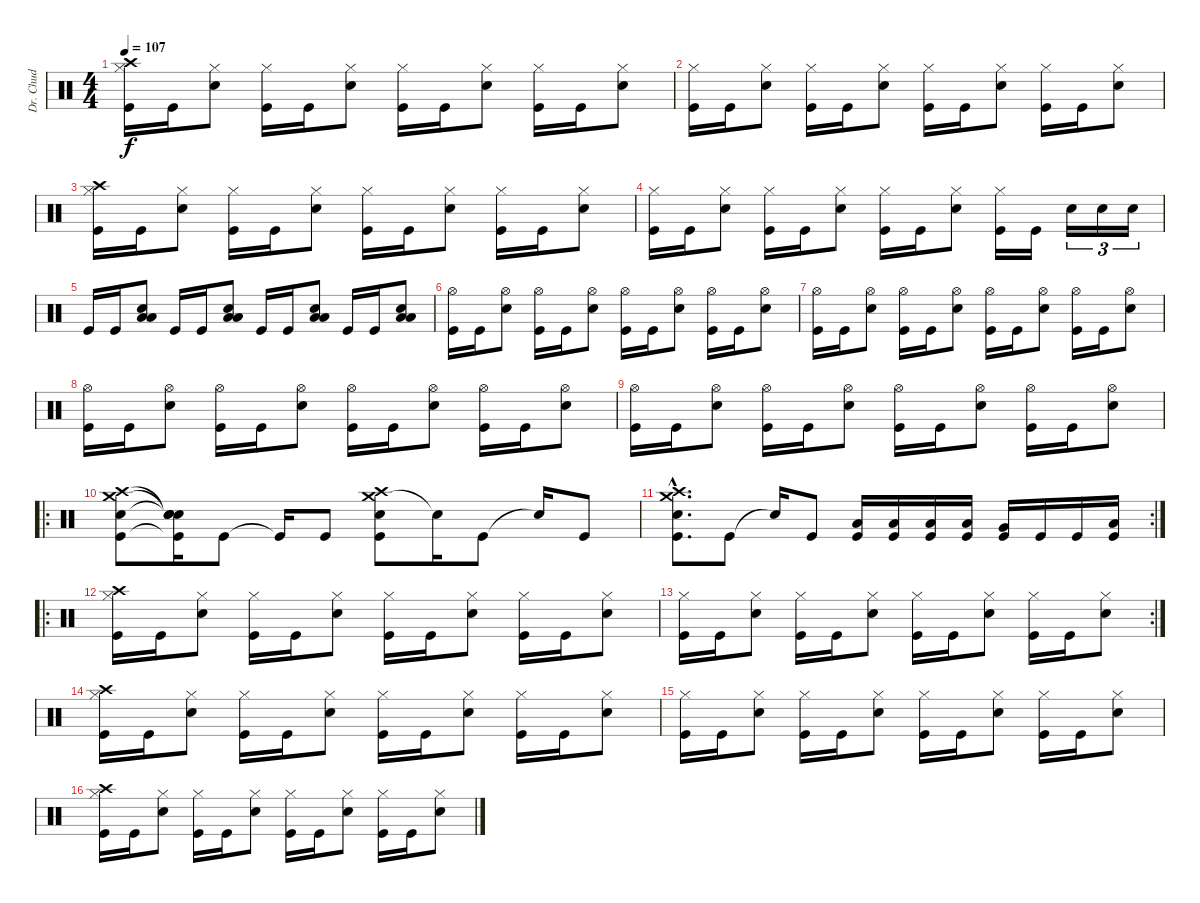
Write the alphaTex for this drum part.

\track ("Dr. Chud" "Dr. Chud") {instrument percussion}
\staff {score}
\articulation defaults
\ts (4 4)
\tempo 107
\clef neutral
\ks c
("Crash high (hit)" "Hi-Hat (closed)" "Kick (hit)").16{dy f} "Kick (hit)".16 ("Hi-Hat (closed)" "Snare (hit) 2").8 ("Hi-Hat (closed)" "Kick (hit)").16 "Kick (hit)".16 ("Hi-Hat (closed)" "Snare (hit) 2").8 ("Hi-Hat (closed)" "Kick (hit)").16 "Kick (hit)".16 ("Hi-Hat (closed)" "Snare (hit) 2").8 ("Hi-Hat (closed)" "Kick (hit)").16 "Kick (hit)".16 ("Hi-Hat (closed)" "Snare (hit) 2").8 |
("Hi-Hat (closed)" "Kick (hit)").16 "Kick (hit)".16 ("Hi-Hat (closed)" "Snare (hit) 2").8 ("Hi-Hat (closed)" "Kick (hit)").16 "Kick (hit)".16 ("Hi-Hat (closed)" "Snare (hit) 2").8 ("Hi-Hat (closed)" "Kick (hit)").16 "Kick (hit)".16 ("Hi-Hat (closed)" "Snare (hit) 2").8 ("Hi-Hat (closed)" "Kick (hit)").16 "Kick (hit)".16 ("Hi-Hat (closed)" "Snare (hit) 2").8 |
("Crash high (hit)" "Hi-Hat (closed)" "Kick (hit)").16 "Kick (hit)".16 ("Hi-Hat (closed)" "Snare (hit) 2").8 ("Hi-Hat (closed)" "Kick (hit)").16 "Kick (hit)".16 ("Hi-Hat (closed)" "Snare (hit) 2").8 ("Hi-Hat (closed)" "Kick (hit)").16 "Kick (hit)".16 ("Hi-Hat (closed)" "Snare (hit) 2").8 ("Hi-Hat (closed)" "Kick (hit)").16 "Kick (hit)".16 ("Hi-Hat (closed)" "Snare (hit) 2").8 |
("Hi-Hat (closed)" "Kick (hit)").16 "Kick (hit)".16 ("Hi-Hat (closed)" "Snare (hit) 2").8 ("Hi-Hat (closed)" "Kick (hit)").16 "Kick (hit)".16 ("Hi-Hat (closed)" "Snare (hit) 2").8 ("Hi-Hat (closed)" "Kick (hit)").16 "Kick (hit)".16 ("Hi-Hat (closed)" "Snare (hit) 2").8 ("Hi-Hat (closed)" "Kick (hit)").16 "Kick (hit)".16 "Snare (hit) 2".16{tu (3 2)} "Snare (hit) 2".16{tu (3 2)} "Snare (hit) 2".16{tu (3 2)} |
"Kick (hit)".16 "Kick (hit)".16 ("Low Floor Tom (hit)" "Low Tom (hit)" "Snare (hit) 2").8 "Kick (hit)".16 "Kick (hit)".16 ("Low Floor Tom (hit)" "Low Tom (hit)" "Snare (hit) 2").8 "Kick (hit)".16 "Kick (hit)".16 ("Low Floor Tom (hit)" "Low Tom (hit)" "Snare (hit) 2").8 "Kick (hit)".16 "Kick (hit)".16 ("Low Floor Tom (hit)" "Low Tom (hit)" "Snare (hit) 2").8 |
("Hi-Hat (open)" "Kick (hit)").16 "Kick (hit)".16 ("Hi-Hat (open)" "Snare (hit) 2").8 ("Hi-Hat (open)" "Kick (hit)").16 "Kick (hit)".16 ("Hi-Hat (open)" "Snare (hit) 2").8 ("Hi-Hat (open)" "Kick (hit)").16 "Kick (hit)".16 ("Hi-Hat (open)" "Snare (hit) 2").8 ("Hi-Hat (open)" "Kick (hit)").16 "Kick (hit)".16 ("Hi-Hat (open)" "Snare (hit) 2").8 |
("Hi-Hat (open)" "Kick (hit)").16 "Kick (hit)".16 ("Hi-Hat (open)" "Snare (hit) 2").8 ("Hi-Hat (open)" "Kick (hit)").16 "Kick (hit)".16 ("Hi-Hat (open)" "Snare (hit) 2").8 ("Hi-Hat (open)" "Kick (hit)").16 "Kick (hit)".16 ("Hi-Hat (open)" "Snare (hit) 2").8 ("Hi-Hat (open)" "Kick (hit)").16 "Kick (hit)".16 ("Hi-Hat (open)" "Snare (hit) 2").8 |
("Hi-Hat (open)" "Kick (hit)").16 "Kick (hit)".16 ("Hi-Hat (open)" "Snare (hit) 2").8 ("Hi-Hat (open)" "Kick (hit)").16 "Kick (hit)".16 ("Hi-Hat (open)" "Snare (hit) 2").8 ("Hi-Hat (open)" "Kick (hit)").16 "Kick (hit)".16 ("Hi-Hat (open)" "Snare (hit) 2").8 ("Hi-Hat (open)" "Kick (hit)").16 "Kick (hit)".16 ("Hi-Hat (open)" "Snare (hit) 2").8 |
("Hi-Hat (open)" "Kick (hit)").16 "Kick (hit)".16 ("Hi-Hat (open)" "Snare (hit) 2").8 ("Hi-Hat (open)" "Kick (hit)").16 "Kick (hit)".16 ("Hi-Hat (open)" "Snare (hit) 2").8 ("Hi-Hat (open)" "Kick (hit)").16 "Kick (hit)".16 ("Hi-Hat (open)" "Snare (hit) 2").8 ("Hi-Hat (open)" "Kick (hit)").16 "Kick (hit)".16 ("Hi-Hat (open)" "Snare (hit) 2").8 |
\ro
("Crash medium (hit)" "Crash high (hit)" "Snare (hit) 2" "Kick (hit)").8 ("Snare (hit)"{t} "Snare (hit)"{t} "Snare (hit)"{t} "Kick (hit)"{t}).16 "Kick (hit)".8 "Kick (hit)"{t}.16 "Kick (hit)".8 ("Crash medium (hit)" "Crash high (hit)" "Snare (hit) 2" "Kick (hit)").8 "Snare (hit)"{t}.16 "Kick (hit)".8 "Snare (hit)"{t}.16 "Kick (hit)".8 |
\rc 2
("Crash medium (hit)"{hac} "Crash high (hit)"{hac} "Snare (hit) 2"{hac} "Kick (hit)"{hac}).8{d} "Kick (hit)".8 "Snare (hit)"{t}.16 "Kick (hit)".8 ("Low Tom (hit)" "Kick (hit)").16 ("Low Tom (hit)" "Kick (hit)").16 ("Low Tom (hit)" "Kick (hit)").16 ("Low Tom (hit)" "Kick (hit)").16 ("Very Low Tom (hit)" "Kick (hit)").16 "Kick (hit)".16 "Kick (hit)".16 ("Low Floor Tom (hit)" "Kick (hit)").16 |
\ro
("Crash high (hit)" "Hi-Hat (closed)" "Kick (hit)").16 "Kick (hit)".16 ("Hi-Hat (closed)" "Snare (hit) 2").8 ("Hi-Hat (closed)" "Kick (hit)").16 "Kick (hit)".16 ("Hi-Hat (closed)" "Snare (hit) 2").8 ("Hi-Hat (closed)" "Kick (hit)").16 "Kick (hit)".16 ("Hi-Hat (closed)" "Snare (hit) 2").8 ("Hi-Hat (closed)" "Kick (hit)").16 "Kick (hit)".16 ("Hi-Hat (closed)" "Snare (hit) 2").8 |
\rc 2
("Hi-Hat (closed)" "Kick (hit)").16 "Kick (hit)".16 ("Hi-Hat (closed)" "Snare (hit) 2").8 ("Hi-Hat (closed)" "Kick (hit)").16 "Kick (hit)".16 ("Hi-Hat (closed)" "Snare (hit) 2").8 ("Hi-Hat (closed)" "Kick (hit)").16 "Kick (hit)".16 ("Hi-Hat (closed)" "Snare (hit) 2").8 ("Hi-Hat (closed)" "Kick (hit)").16 "Kick (hit)".16 ("Hi-Hat (closed)" "Snare (hit) 2").8 |
("Crash high (hit)" "Hi-Hat (closed)" "Kick (hit)").16 "Kick (hit)".16 ("Hi-Hat (closed)" "Snare (hit) 2").8 ("Hi-Hat (closed)" "Kick (hit)").16 "Kick (hit)".16 ("Hi-Hat (closed)" "Snare (hit) 2").8 ("Hi-Hat (closed)" "Kick (hit)").16 "Kick (hit)".16 ("Hi-Hat (closed)" "Snare (hit) 2").8 ("Hi-Hat (closed)" "Kick (hit)").16 "Kick (hit)".16 ("Hi-Hat (closed)" "Snare (hit) 2").8 |
("Hi-Hat (closed)" "Kick (hit)").16 "Kick (hit)".16 ("Hi-Hat (closed)" "Snare (hit) 2").8 ("Hi-Hat (closed)" "Kick (hit)").16 "Kick (hit)".16 ("Hi-Hat (closed)" "Snare (hit) 2").8 ("Hi-Hat (closed)" "Kick (hit)").16 "Kick (hit)".16 ("Hi-Hat (closed)" "Snare (hit) 2").8 ("Hi-Hat (closed)" "Kick (hit)").16 "Kick (hit)".16 ("Hi-Hat (closed)" "Snare (hit) 2").8 |
("Crash high (hit)" "Hi-Hat (closed)" "Kick (hit)").16 "Kick (hit)".16 ("Hi-Hat (closed)" "Snare (hit) 2").8 ("Hi-Hat (closed)" "Kick (hit)").16 "Kick (hit)".16 ("Hi-Hat (closed)" "Snare (hit) 2").8 ("Hi-Hat (closed)" "Kick (hit)").16 "Kick (hit)".16 ("Hi-Hat (closed)" "Snare (hit) 2").8 ("Hi-Hat (closed)" "Kick (hit)").16 "Kick (hit)".16 ("Hi-Hat (closed)" "Snare (hit) 2").8
